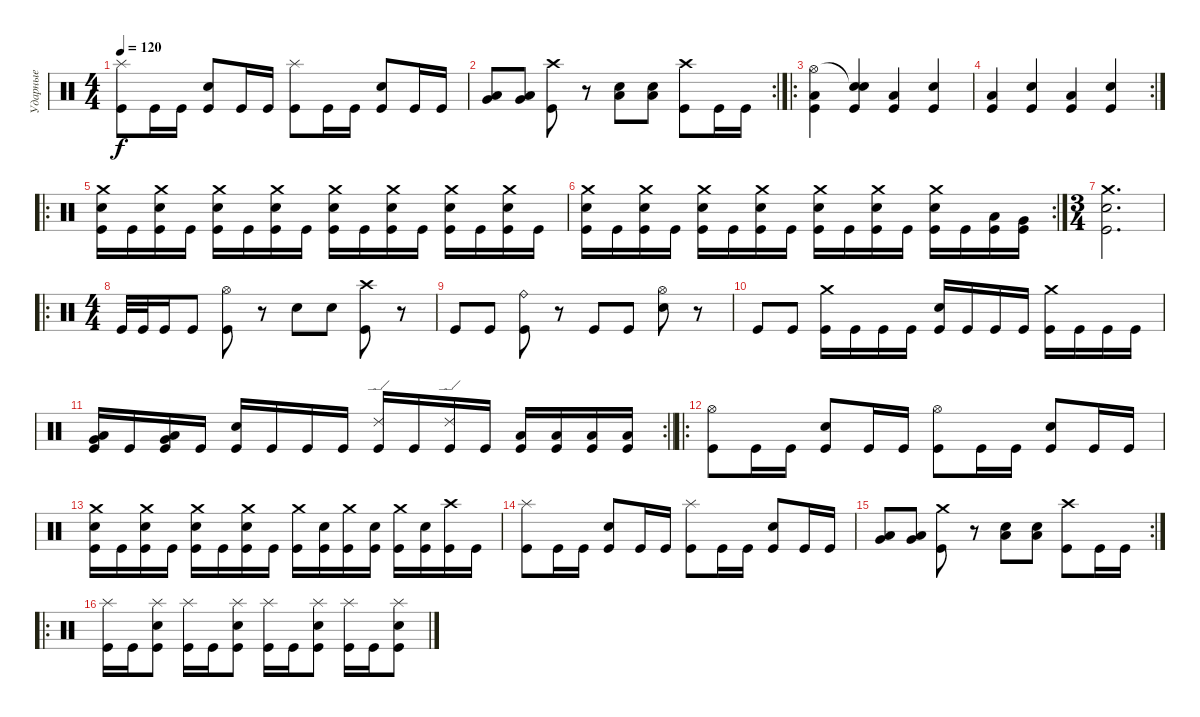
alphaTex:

\track ("Ударные" "Ударные") {instrument percussion}
\staff {score}
\articulation defaults
\ts (4 4)
\tempo 120
\clef neutral
\ks c
("Splash (hit)" "Kick (hit)").8{dy f} "Kick (hit)".16 "Kick (hit)".16 ("Electric Snare (hit)" "Kick (hit)").8 "Kick (hit)".16 "Kick (hit)".16 ("Splash (hit)" "Kick (hit)").8 "Kick (hit)".16 "Kick (hit)".16 ("Electric Snare (hit)" "Kick (hit)").8 "Kick (hit)".16 "Kick (hit)".16 |
\rc 2
("Low Tom (hit)" "Very Low Tom (hit)").8 ("Low Tom (hit)" "Very Low Tom (hit)").8 ("Crash high (hit)" "Kick (hit)").8 r.8 ("Electric Snare (hit)" "Low Floor Tom (hit)").8 ("Electric Snare (hit)" "Low Floor Tom (hit)").8 ("Crash high (hit)" "Kick (hit)").8 "Kick (hit)".16 "Kick (hit)".16 |
\ro
("Hi-Hat (open)" "Low Floor Tom (hit)" "Kick (hit)").4 ("Snare (hit)"{t} "Electric Snare (hit)" "Kick (hit)").4 ("Low Floor Tom (hit)" "Kick (hit)").4 ("Electric Snare (hit)" "Kick (hit)").4 |
\rc 2
("Low Floor Tom (hit)" "Kick (hit)").4 ("Electric Snare (hit)" "Kick (hit)").4 ("Low Floor Tom (hit)" "Kick (hit)").4 ("Electric Snare (hit)" "Kick (hit)").4 |
\ro
("Crash medium (hit)" "Kick (hit)" "Electric Snare (hit)").16 "Kick (hit)".16 ("Crash medium (hit)" "Kick (hit)" "Electric Snare (hit)").16 "Kick (hit)".16 ("Crash medium (hit)" "Kick (hit)" "Electric Snare (hit)").16 "Kick (hit)".16 ("Crash medium (hit)" "Kick (hit)" "Electric Snare (hit)").16 "Kick (hit)".16 ("Crash medium (hit)" "Kick (hit)" "Electric Snare (hit)").16 "Kick (hit)".16 ("Crash medium (hit)" "Kick (hit)" "Electric Snare (hit)").16 "Kick (hit)".16 ("Crash medium (hit)" "Kick (hit)" "Electric Snare (hit)").16 "Kick (hit)".16 ("Crash medium (hit)" "Kick (hit)" "Electric Snare (hit)").16 "Kick (hit)".16 |
\rc 2
("Crash medium (hit)" "Kick (hit)" "Electric Snare (hit)").16 "Kick (hit)".16 ("Crash medium (hit)" "Kick (hit)" "Electric Snare (hit)").16 "Kick (hit)".16 ("Crash medium (hit)" "Kick (hit)" "Electric Snare (hit)").16 "Kick (hit)".16 ("Crash medium (hit)" "Kick (hit)" "Electric Snare (hit)").16 "Kick (hit)".16 ("Crash medium (hit)" "Kick (hit)" "Electric Snare (hit)").16 "Kick (hit)".16 ("Crash medium (hit)" "Kick (hit)" "Electric Snare (hit)").16 "Kick (hit)".16 ("Crash medium (hit)" "Kick (hit)" "Electric Snare (hit)").16 "Kick (hit)".16 ("Low Tom (hit)" "Kick (hit)").16 ("Very Low Tom (hit)" "Kick (hit)").16 |
\ts (3 4)
("Crash medium (hit)" "Kick (hit)" "Electric Snare (hit)").2{d} |
\ro
\ts (4 4)
"Kick (hit)".32 "Kick (hit)".32 "Kick (hit)".16 "Kick (hit)".8 ("Hi-Hat (open)" "Kick (hit)").8 r.8 "Electric Snare (hit)".8 "Electric Snare (hit)".8 ("Crash high (hit)" "Kick (hit)").8 r.8 |
"Kick (hit)".8 "Kick (hit)".8 ("Ride (bell)" "Kick (hit)").8 r.8 "Kick (hit)".8 "Kick (hit)".8 ("Electric Snare (hit)" "Hi-Hat (open)").8 r.8 |
"Kick (hit)".8 "Kick (hit)".8 ("Crash medium (hit)" "Kick (hit)").16 "Kick (hit)".16 "Kick (hit)".16 "Kick (hit)".16 ("Electric Snare (hit)" "Kick (hit)").16 "Kick (hit)".16 "Kick (hit)".16 "Kick (hit)".16 ("Crash medium (hit)" "Kick (hit)").16 "Kick (hit)".16 "Kick (hit)".16 "Kick (hit)".16 |
\rc 2
\barLineRight lightlight
("Low Floor Tom (hit)" "Very Low Tom (hit)" "Kick (hit)").16 "Kick (hit)".16 ("Low Floor Tom (hit)" "Very Low Tom (hit)" "Kick (hit)").16 "Kick (hit)".16 ("Electric Snare (hit)" "Kick (hit)").16 "Kick (hit)".16 "Kick (hit)".16 "Kick (hit)".16 ("Ride (edge) 2" "Kick (hit)").16 "Kick (hit)".16 ("Ride (edge) 2" "Kick (hit)").16 "Kick (hit)".16 ("Low Floor Tom (hit)" "Kick (hit)").16 ("Low Floor Tom (hit)" "Kick (hit)").16 ("Low Tom (hit)" "Kick (hit)").16 ("Low Tom (hit)" "Kick (hit)").16 |
\ro
("Hi-Hat (open)" "Kick (hit)").8 "Kick (hit)".16 "Kick (hit)".16 ("Electric Snare (hit)" "Kick (hit)").8 "Kick (hit)".16 "Kick (hit)".16 ("Hi-Hat (open)" "Kick (hit)").8 "Kick (hit)".16 "Kick (hit)".16 ("Electric Snare (hit)" "Kick (hit)").8 "Kick (hit)".16 "Kick (hit)".16 |
("Crash medium (hit)" "Kick (hit)" "Electric Snare (hit)").16 "Kick (hit)".16 ("Crash medium (hit)" "Kick (hit)" "Electric Snare (hit)").16 "Kick (hit)".16 ("Crash medium (hit)" "Kick (hit)" "Electric Snare (hit)").16 "Kick (hit)".16 ("Crash medium (hit)" "Kick (hit)" "Electric Snare (hit)").16 "Kick (hit)".16 ("Crash medium (hit)" "Kick (hit)").16 ("Electric Snare (hit)" "Kick (hit)").16 ("Crash medium (hit)" "Kick (hit)").16 ("Electric Snare (hit)" "Kick (hit)").16 ("Crash medium (hit)" "Kick (hit)").16 ("Electric Snare (hit)" "Kick (hit)").16 ("Crash high (hit)" "Kick (hit)").16 "Kick (hit)".16 |
("Splash (hit)" "Kick (hit)").8 "Kick (hit)".16 "Kick (hit)".16 ("Electric Snare (hit)" "Kick (hit)").8 "Kick (hit)".16 "Kick (hit)".16 ("Splash (hit)" "Kick (hit)").8 "Kick (hit)".16 "Kick (hit)".16 ("Electric Snare (hit)" "Kick (hit)").8 "Kick (hit)".16 "Kick (hit)".16 |
\rc 2
("Low Tom (hit)" "Very Low Tom (hit)").8 ("Low Tom (hit)" "Very Low Tom (hit)").8 ("Crash medium (hit)" "Kick (hit)").8 r.8 ("Electric Snare (hit)" "Low Floor Tom (hit)").8 ("Electric Snare (hit)" "Low Floor Tom (hit)").8 ("Crash high (hit)" "Kick (hit)").8 "Kick (hit)".16 "Kick (hit)".16 |
\ro
("Splash (hit)" "Kick (hit)").16 "Kick (hit)".16 ("Splash (hit)" "Electric Snare (hit)" "Kick (hit)").8 ("Splash (hit)" "Kick (hit)").16 "Kick (hit)".16 ("Splash (hit)" "Electric Snare (hit)" "Kick (hit)").8 ("Splash (hit)" "Kick (hit)").16 "Kick (hit)".16 ("Splash (hit)" "Electric Snare (hit)" "Kick (hit)").8 ("Splash (hit)" "Kick (hit)").16 "Kick (hit)".16 ("Splash (hit)" "Electric Snare (hit)" "Kick (hit)").8
